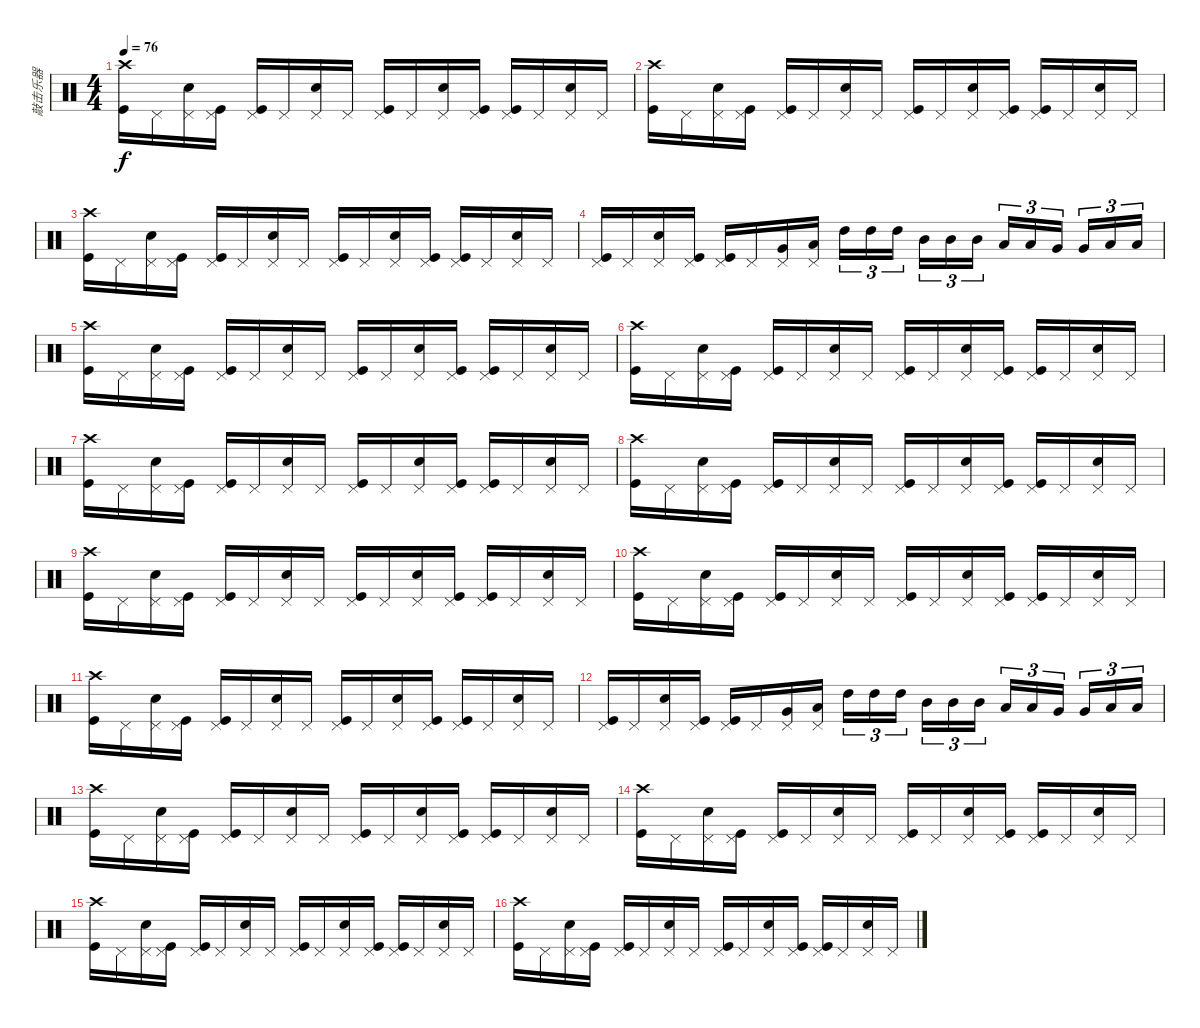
\track ("敲击乐器" "敲击乐器") {instrument percussion}
\staff {score}
\articulation defaults
\ts (4 4)
\tempo 76
\clef neutral
\ks c
("Kick (hit)" "Crash high (hit)").16{dy f} "Pedal Hi-Hat (hit)".16 ("Snare (hit) 2" "Pedal Hi-Hat (hit)").16 ("Kick (hit)" "Pedal Hi-Hat (hit)").16 ("Kick (hit)" "Pedal Hi-Hat (hit)").16 "Pedal Hi-Hat (hit)".16 ("Snare (hit) 2" "Pedal Hi-Hat (hit)").16 "Pedal Hi-Hat (hit)".16 ("Kick (hit)" "Pedal Hi-Hat (hit)").16 "Pedal Hi-Hat (hit)".16 ("Snare (hit) 2" "Pedal Hi-Hat (hit)").16 ("Kick (hit)" "Pedal Hi-Hat (hit)").16 ("Kick (hit)" "Pedal Hi-Hat (hit)").16 "Pedal Hi-Hat (hit)".16 ("Snare (hit) 2" "Pedal Hi-Hat (hit)").16 "Pedal Hi-Hat (hit)".16 |
("Kick (hit)" "Crash high (hit)").16 "Pedal Hi-Hat (hit)".16 ("Snare (hit) 2" "Pedal Hi-Hat (hit)").16 ("Kick (hit)" "Pedal Hi-Hat (hit)").16 ("Kick (hit)" "Pedal Hi-Hat (hit)").16 "Pedal Hi-Hat (hit)".16 ("Snare (hit) 2" "Pedal Hi-Hat (hit)").16 "Pedal Hi-Hat (hit)".16 ("Kick (hit)" "Pedal Hi-Hat (hit)").16 "Pedal Hi-Hat (hit)".16 ("Snare (hit) 2" "Pedal Hi-Hat (hit)").16 ("Kick (hit)" "Pedal Hi-Hat (hit)").16 ("Kick (hit)" "Pedal Hi-Hat (hit)").16 "Pedal Hi-Hat (hit)".16 ("Snare (hit) 2" "Pedal Hi-Hat (hit)").16 "Pedal Hi-Hat (hit)".16 |
("Kick (hit)" "Crash high (hit)").16 "Pedal Hi-Hat (hit)".16 ("Snare (hit) 2" "Pedal Hi-Hat (hit)").16 ("Kick (hit)" "Pedal Hi-Hat (hit)").16 ("Kick (hit)" "Pedal Hi-Hat (hit)").16 "Pedal Hi-Hat (hit)".16 ("Snare (hit) 2" "Pedal Hi-Hat (hit)").16 "Pedal Hi-Hat (hit)".16 ("Kick (hit)" "Pedal Hi-Hat (hit)").16 "Pedal Hi-Hat (hit)".16 ("Snare (hit) 2" "Pedal Hi-Hat (hit)").16 ("Kick (hit)" "Pedal Hi-Hat (hit)").16 ("Kick (hit)" "Pedal Hi-Hat (hit)").16 "Pedal Hi-Hat (hit)".16 ("Snare (hit) 2" "Pedal Hi-Hat (hit)").16 "Pedal Hi-Hat (hit)".16 |
("Kick (hit)" "Pedal Hi-Hat (hit)").16 "Pedal Hi-Hat (hit)".16 ("Snare (hit) 2" "Pedal Hi-Hat (hit)").16 ("Kick (hit)" "Pedal Hi-Hat (hit)").16 ("Kick (hit)" "Pedal Hi-Hat (hit)").16 "Pedal Hi-Hat (hit)".16 ("Very Low Tom (hit)" "Pedal Hi-Hat (hit)").16 ("Low Floor Tom (hit)" "Pedal Hi-Hat (hit)").16 "High Tom (hit)".16{tu (3 2)} "High Tom (hit)".16{tu (3 2)} "High Tom (hit)".16{tu (3 2) beam splitsecondary} "Mid Tom (hit)".16{tu (3 2)} "Mid Tom (hit)".16{tu (3 2)} "Mid Tom (hit)".16{tu (3 2)} "Low Tom (hit)".16{tu (3 2)} "Low Tom (hit)".16{tu (3 2)} "Very Low Tom (hit)".16{tu (3 2) beam splitsecondary} "Very Low Tom (hit)".16{tu (3 2)} "Low Floor Tom (hit)".16{tu (3 2)} "Low Floor Tom (hit)".16{tu (3 2)} |
("Kick (hit)" "Crash high (hit)").16 "Pedal Hi-Hat (hit)".16 ("Snare (hit) 2" "Pedal Hi-Hat (hit)").16 ("Kick (hit)" "Pedal Hi-Hat (hit)").16 ("Kick (hit)" "Pedal Hi-Hat (hit)").16 "Pedal Hi-Hat (hit)".16 ("Snare (hit) 2" "Pedal Hi-Hat (hit)").16 "Pedal Hi-Hat (hit)".16 ("Kick (hit)" "Pedal Hi-Hat (hit)").16 "Pedal Hi-Hat (hit)".16 ("Snare (hit) 2" "Pedal Hi-Hat (hit)").16 ("Kick (hit)" "Pedal Hi-Hat (hit)").16 ("Kick (hit)" "Pedal Hi-Hat (hit)").16 "Pedal Hi-Hat (hit)".16 ("Snare (hit) 2" "Pedal Hi-Hat (hit)").16 "Pedal Hi-Hat (hit)".16 |
("Kick (hit)" "Crash high (hit)").16 "Pedal Hi-Hat (hit)".16 ("Snare (hit) 2" "Pedal Hi-Hat (hit)").16 ("Kick (hit)" "Pedal Hi-Hat (hit)").16 ("Kick (hit)" "Pedal Hi-Hat (hit)").16 "Pedal Hi-Hat (hit)".16 ("Snare (hit) 2" "Pedal Hi-Hat (hit)").16 "Pedal Hi-Hat (hit)".16 ("Kick (hit)" "Pedal Hi-Hat (hit)").16 "Pedal Hi-Hat (hit)".16 ("Snare (hit) 2" "Pedal Hi-Hat (hit)").16 ("Kick (hit)" "Pedal Hi-Hat (hit)").16 ("Kick (hit)" "Pedal Hi-Hat (hit)").16 "Pedal Hi-Hat (hit)".16 ("Snare (hit) 2" "Pedal Hi-Hat (hit)").16 "Pedal Hi-Hat (hit)".16 |
("Kick (hit)" "Crash high (hit)").16 "Pedal Hi-Hat (hit)".16 ("Snare (hit) 2" "Pedal Hi-Hat (hit)").16 ("Kick (hit)" "Pedal Hi-Hat (hit)").16 ("Kick (hit)" "Pedal Hi-Hat (hit)").16 "Pedal Hi-Hat (hit)".16 ("Snare (hit) 2" "Pedal Hi-Hat (hit)").16 "Pedal Hi-Hat (hit)".16 ("Kick (hit)" "Pedal Hi-Hat (hit)").16 "Pedal Hi-Hat (hit)".16 ("Snare (hit) 2" "Pedal Hi-Hat (hit)").16 ("Kick (hit)" "Pedal Hi-Hat (hit)").16 ("Kick (hit)" "Pedal Hi-Hat (hit)").16 "Pedal Hi-Hat (hit)".16 ("Snare (hit) 2" "Pedal Hi-Hat (hit)").16 "Pedal Hi-Hat (hit)".16 |
("Kick (hit)" "Crash high (hit)").16 "Pedal Hi-Hat (hit)".16 ("Snare (hit) 2" "Pedal Hi-Hat (hit)").16 ("Kick (hit)" "Pedal Hi-Hat (hit)").16 ("Kick (hit)" "Pedal Hi-Hat (hit)").16 "Pedal Hi-Hat (hit)".16 ("Snare (hit) 2" "Pedal Hi-Hat (hit)").16 "Pedal Hi-Hat (hit)".16 ("Kick (hit)" "Pedal Hi-Hat (hit)").16 "Pedal Hi-Hat (hit)".16 ("Snare (hit) 2" "Pedal Hi-Hat (hit)").16 ("Kick (hit)" "Pedal Hi-Hat (hit)").16 ("Kick (hit)" "Pedal Hi-Hat (hit)").16 "Pedal Hi-Hat (hit)".16 ("Snare (hit) 2" "Pedal Hi-Hat (hit)").16 "Pedal Hi-Hat (hit)".16 |
("Kick (hit)" "Crash high (hit)").16 "Pedal Hi-Hat (hit)".16 ("Snare (hit) 2" "Pedal Hi-Hat (hit)").16 ("Kick (hit)" "Pedal Hi-Hat (hit)").16 ("Kick (hit)" "Pedal Hi-Hat (hit)").16 "Pedal Hi-Hat (hit)".16 ("Snare (hit) 2" "Pedal Hi-Hat (hit)").16 "Pedal Hi-Hat (hit)".16 ("Kick (hit)" "Pedal Hi-Hat (hit)").16 "Pedal Hi-Hat (hit)".16 ("Snare (hit) 2" "Pedal Hi-Hat (hit)").16 ("Kick (hit)" "Pedal Hi-Hat (hit)").16 ("Kick (hit)" "Pedal Hi-Hat (hit)").16 "Pedal Hi-Hat (hit)".16 ("Snare (hit) 2" "Pedal Hi-Hat (hit)").16 "Pedal Hi-Hat (hit)".16 |
("Kick (hit)" "Crash high (hit)").16 "Pedal Hi-Hat (hit)".16 ("Snare (hit) 2" "Pedal Hi-Hat (hit)").16 ("Kick (hit)" "Pedal Hi-Hat (hit)").16 ("Kick (hit)" "Pedal Hi-Hat (hit)").16 "Pedal Hi-Hat (hit)".16 ("Snare (hit) 2" "Pedal Hi-Hat (hit)").16 "Pedal Hi-Hat (hit)".16 ("Kick (hit)" "Pedal Hi-Hat (hit)").16 "Pedal Hi-Hat (hit)".16 ("Snare (hit) 2" "Pedal Hi-Hat (hit)").16 ("Kick (hit)" "Pedal Hi-Hat (hit)").16 ("Kick (hit)" "Pedal Hi-Hat (hit)").16 "Pedal Hi-Hat (hit)".16 ("Snare (hit) 2" "Pedal Hi-Hat (hit)").16 "Pedal Hi-Hat (hit)".16 |
("Kick (hit)" "Crash high (hit)").16 "Pedal Hi-Hat (hit)".16 ("Snare (hit) 2" "Pedal Hi-Hat (hit)").16 ("Kick (hit)" "Pedal Hi-Hat (hit)").16 ("Kick (hit)" "Pedal Hi-Hat (hit)").16 "Pedal Hi-Hat (hit)".16 ("Snare (hit) 2" "Pedal Hi-Hat (hit)").16 "Pedal Hi-Hat (hit)".16 ("Kick (hit)" "Pedal Hi-Hat (hit)").16 "Pedal Hi-Hat (hit)".16 ("Snare (hit) 2" "Pedal Hi-Hat (hit)").16 ("Kick (hit)" "Pedal Hi-Hat (hit)").16 ("Kick (hit)" "Pedal Hi-Hat (hit)").16 "Pedal Hi-Hat (hit)".16 ("Snare (hit) 2" "Pedal Hi-Hat (hit)").16 "Pedal Hi-Hat (hit)".16 |
("Kick (hit)" "Pedal Hi-Hat (hit)").16 "Pedal Hi-Hat (hit)".16 ("Snare (hit) 2" "Pedal Hi-Hat (hit)").16 ("Kick (hit)" "Pedal Hi-Hat (hit)").16 ("Kick (hit)" "Pedal Hi-Hat (hit)").16 "Pedal Hi-Hat (hit)".16 ("Very Low Tom (hit)" "Pedal Hi-Hat (hit)").16 ("Low Floor Tom (hit)" "Pedal Hi-Hat (hit)").16 "High Tom (hit)".16{tu (3 2)} "High Tom (hit)".16{tu (3 2)} "High Tom (hit)".16{tu (3 2) beam splitsecondary} "Mid Tom (hit)".16{tu (3 2)} "Mid Tom (hit)".16{tu (3 2)} "Mid Tom (hit)".16{tu (3 2)} "Low Tom (hit)".16{tu (3 2)} "Low Tom (hit)".16{tu (3 2)} "Very Low Tom (hit)".16{tu (3 2) beam splitsecondary} "Very Low Tom (hit)".16{tu (3 2)} "Low Floor Tom (hit)".16{tu (3 2)} "Low Floor Tom (hit)".16{tu (3 2)} |
("Kick (hit)" "Crash high (hit)").16 "Pedal Hi-Hat (hit)".16 ("Snare (hit) 2" "Pedal Hi-Hat (hit)").16 ("Kick (hit)" "Pedal Hi-Hat (hit)").16 ("Kick (hit)" "Pedal Hi-Hat (hit)").16 "Pedal Hi-Hat (hit)".16 ("Snare (hit) 2" "Pedal Hi-Hat (hit)").16 "Pedal Hi-Hat (hit)".16 ("Kick (hit)" "Pedal Hi-Hat (hit)").16 "Pedal Hi-Hat (hit)".16 ("Snare (hit) 2" "Pedal Hi-Hat (hit)").16 ("Kick (hit)" "Pedal Hi-Hat (hit)").16 ("Kick (hit)" "Pedal Hi-Hat (hit)").16 "Pedal Hi-Hat (hit)".16 ("Snare (hit) 2" "Pedal Hi-Hat (hit)").16 "Pedal Hi-Hat (hit)".16 |
("Kick (hit)" "Crash high (hit)").16 "Pedal Hi-Hat (hit)".16 ("Snare (hit) 2" "Pedal Hi-Hat (hit)").16 ("Kick (hit)" "Pedal Hi-Hat (hit)").16 ("Kick (hit)" "Pedal Hi-Hat (hit)").16 "Pedal Hi-Hat (hit)".16 ("Snare (hit) 2" "Pedal Hi-Hat (hit)").16 "Pedal Hi-Hat (hit)".16 ("Kick (hit)" "Pedal Hi-Hat (hit)").16 "Pedal Hi-Hat (hit)".16 ("Snare (hit) 2" "Pedal Hi-Hat (hit)").16 ("Kick (hit)" "Pedal Hi-Hat (hit)").16 ("Kick (hit)" "Pedal Hi-Hat (hit)").16 "Pedal Hi-Hat (hit)".16 ("Snare (hit) 2" "Pedal Hi-Hat (hit)").16 "Pedal Hi-Hat (hit)".16 |
("Kick (hit)" "Crash high (hit)").16 "Pedal Hi-Hat (hit)".16 ("Snare (hit) 2" "Pedal Hi-Hat (hit)").16 ("Kick (hit)" "Pedal Hi-Hat (hit)").16 ("Kick (hit)" "Pedal Hi-Hat (hit)").16 "Pedal Hi-Hat (hit)".16 ("Snare (hit) 2" "Pedal Hi-Hat (hit)").16 "Pedal Hi-Hat (hit)".16 ("Kick (hit)" "Pedal Hi-Hat (hit)").16 "Pedal Hi-Hat (hit)".16 ("Snare (hit) 2" "Pedal Hi-Hat (hit)").16 ("Kick (hit)" "Pedal Hi-Hat (hit)").16 ("Kick (hit)" "Pedal Hi-Hat (hit)").16 "Pedal Hi-Hat (hit)".16 ("Snare (hit) 2" "Pedal Hi-Hat (hit)").16 "Pedal Hi-Hat (hit)".16 |
("Kick (hit)" "Crash high (hit)").16 "Pedal Hi-Hat (hit)".16 ("Snare (hit) 2" "Pedal Hi-Hat (hit)").16 ("Kick (hit)" "Pedal Hi-Hat (hit)").16 ("Kick (hit)" "Pedal Hi-Hat (hit)").16 "Pedal Hi-Hat (hit)".16 ("Snare (hit) 2" "Pedal Hi-Hat (hit)").16 "Pedal Hi-Hat (hit)".16 ("Kick (hit)" "Pedal Hi-Hat (hit)").16 "Pedal Hi-Hat (hit)".16 ("Snare (hit) 2" "Pedal Hi-Hat (hit)").16 ("Kick (hit)" "Pedal Hi-Hat (hit)").16 ("Kick (hit)" "Pedal Hi-Hat (hit)").16 "Pedal Hi-Hat (hit)".16 ("Snare (hit) 2" "Pedal Hi-Hat (hit)").16 "Pedal Hi-Hat (hit)".16
